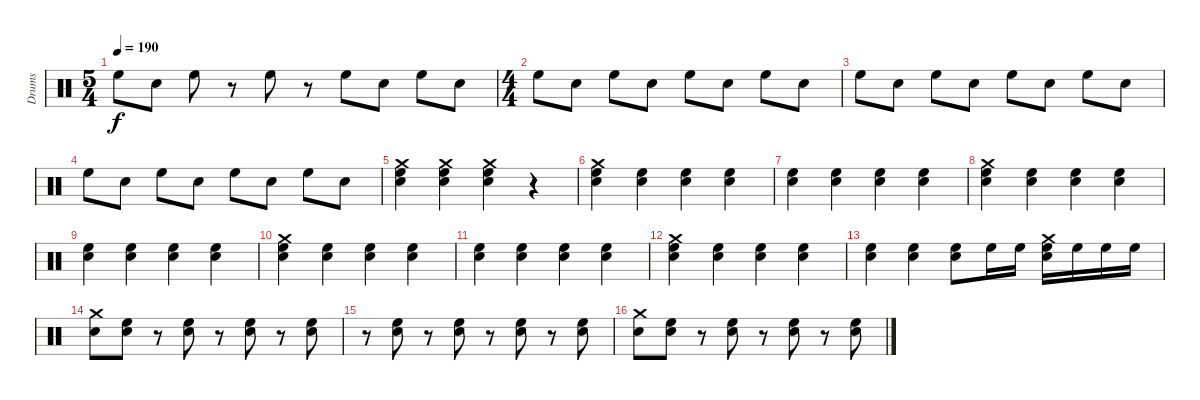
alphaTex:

\track ("Drums" "Drums") {instrument percussion}
\staff {score}
\articulation defaults
\ts (5 4)
\tempo 190
\clef neutral
\ks c "High Floor Tom (hit)".8{dy f} "Electric Snare (hit)".8 "High Floor Tom (hit)".8
r.8 "High Floor Tom (hit)".8 r.8 "High Floor Tom (hit)".8 "Snare (hit) 2".8 "High Floor Tom (hit)".8 "Electric Snare (hit)".8 |
\ts (4 4)
"High Floor Tom (hit)".8 "Electric Snare (hit)".8 "High Floor Tom (hit)".8 "Electric Snare (hit)".8 "High Floor Tom (hit)".8 "Electric Snare (hit)".8 "High Floor Tom (hit)".8 "Electric Snare (hit)".8 |
"High Floor Tom (hit)".8 "Electric Snare (hit)".8 "High Floor Tom (hit)".8 "Electric Snare (hit)".8 "High Floor Tom (hit)".8 "Electric Snare (hit)".8 "High Floor Tom (hit)".8 "Electric Snare (hit)".8 |
"High Floor Tom (hit)".8 "Electric Snare (hit)".8 "High Floor Tom (hit)".8 "Electric Snare (hit)".8 "High Floor Tom (hit)".8 "Electric Snare (hit)".8 "High Floor Tom (hit)".8 "Electric Snare (hit)".8 |
("Crash medium (hit)" "Electric Snare (hit)" "High Floor Tom (hit)").4 ("Crash medium (hit)" "Electric Snare (hit)" "High Floor Tom (hit)").4 ("Crash medium (hit)" "Electric Snare (hit)" "High Floor Tom (hit)").4 r.4 |
("Electric Snare (hit)" "Crash medium (hit)" "High Floor Tom (hit)").4 ("Electric Snare (hit)" "High Floor Tom (hit)").4 ("Electric Snare (hit)" "High Floor Tom (hit)").4 ("Electric Snare (hit)" "High Floor Tom (hit)").4 |
("Electric Snare (hit)" "High Floor Tom (hit)").4 ("Electric Snare (hit)" "High Floor Tom (hit)").4 ("Electric Snare (hit)" "High Floor Tom (hit)").4 ("Electric Snare (hit)" "High Floor Tom (hit)").4 |
("Electric Snare (hit)" "High Floor Tom (hit)" "Crash medium (hit)").4 ("Electric Snare (hit)" "High Floor Tom (hit)").4 ("Electric Snare (hit)" "High Floor Tom (hit)").4 ("Electric Snare (hit)" "High Floor Tom (hit)").4 |
("Electric Snare (hit)" "High Floor Tom (hit)").4 ("Electric Snare (hit)" "High Floor Tom (hit)").4 ("Electric Snare (hit)" "High Floor Tom (hit)").4 ("Electric Snare (hit)" "High Floor Tom (hit)").4 |
("Electric Snare (hit)" "Crash medium (hit)" "High Floor Tom (hit)").4 ("Electric Snare (hit)" "High Floor Tom (hit)").4 ("Electric Snare (hit)" "High Floor Tom (hit)").4 ("Electric Snare (hit)" "High Floor Tom (hit)").4 |
("Electric Snare (hit)" "High Floor Tom (hit)").4 ("Electric Snare (hit)" "High Floor Tom (hit)").4 ("Electric Snare (hit)" "High Floor Tom (hit)").4 ("Electric Snare (hit)" "High Floor Tom (hit)").4 |
("Electric Snare (hit)" "High Floor Tom (hit)" "Crash medium (hit)").4 ("Electric Snare (hit)" "High Floor Tom (hit)").4 ("Electric Snare (hit)" "High Floor Tom (hit)").4 ("Electric Snare (hit)" "High Floor Tom (hit)").4 |
("Electric Snare (hit)" "High Floor Tom (hit)").4 ("Electric Snare (hit)" "High Floor Tom (hit)").4 ("Electric Snare (hit)" "High Floor Tom (hit)").8 "High Floor Tom (hit)".16 "High Floor Tom (hit)".16 ("Crash medium (hit)" "High Floor Tom (hit)" "Electric Snare (hit)").16 "High Floor Tom (hit)".16 "High Floor Tom (hit)".16 "High Floor Tom (hit)".16 |
("Electric Snare (hit)" "Crash medium (hit)").8 ("Electric Snare (hit)" "High Floor Tom (hit)").8 r.8 ("Electric Snare (hit)" "High Floor Tom (hit)").8 r.8 ("Electric Snare (hit)" "High Floor Tom (hit)").8 r.8 ("Electric Snare (hit)" "High Floor Tom (hit)").8 |
r.8 ("Electric Snare (hit)" "High Floor Tom (hit)").8 r.8 ("Electric Snare (hit)" "High Floor Tom (hit)").8 r.8 ("Electric Snare (hit)" "High Floor Tom (hit)").8 r.8 ("Electric Snare (hit)" "High Floor Tom (hit)").8 |
("Electric Snare (hit)" "Crash medium (hit)").8 ("Electric Snare (hit)" "High Floor Tom (hit)").8 r.8 ("Electric Snare (hit)" "High Floor Tom (hit)").8 r.8 ("Electric Snare (hit)" "High Floor Tom (hit)").8 r.8 ("Electric Snare (hit)" "High Floor Tom (hit)").8
